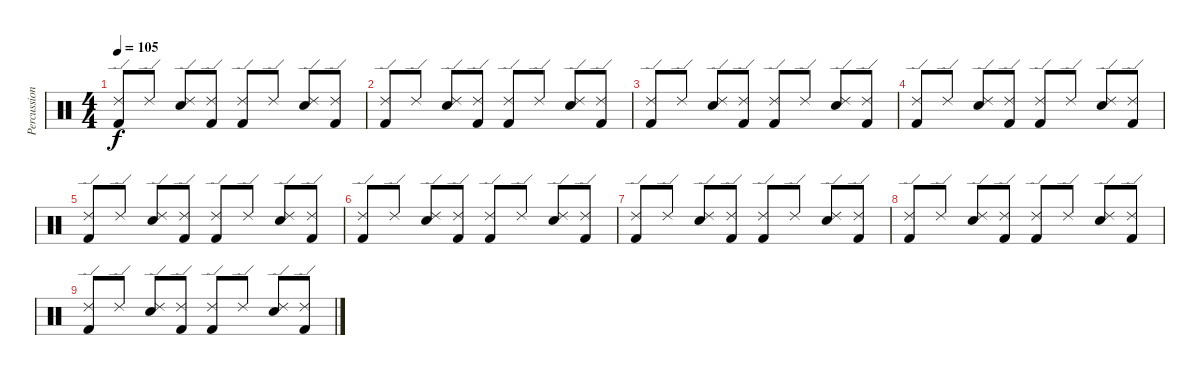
\track ("Percussion" "Percussion") {instrument percussion}
\staff {score}
\articulation defaults
\ts (4 4)
\tempo 105
\clef neutral
\ks c
("Ride (edge) 2" "Kick (hit) 2").8{dy f} "Ride (edge) 2".8 ("Ride (edge) 2" "Electric Snare (hit)").8 ("Ride (edge) 2" "Kick (hit) 2").8 ("Ride (edge) 2" "Kick (hit) 2").8 "Ride (edge) 2".8 ("Ride (edge) 2" "Electric Snare (hit)").8 ("Ride (edge) 2" "Kick (hit) 2").8 |
("Ride (edge) 2" "Kick (hit) 2").8 "Ride (edge) 2".8 ("Ride (edge) 2" "Electric Snare (hit)").8 ("Ride (edge) 2" "Kick (hit) 2").8 ("Ride (edge) 2" "Kick (hit) 2").8 "Ride (edge) 2".8 ("Ride (edge) 2" "Electric Snare (hit)").8 ("Ride (edge) 2" "Kick (hit) 2").8 |
("Ride (edge) 2" "Kick (hit) 2").8 "Ride (edge) 2".8 ("Ride (edge) 2" "Electric Snare (hit)").8 ("Ride (edge) 2" "Kick (hit) 2").8 ("Ride (edge) 2" "Kick (hit) 2").8 "Ride (edge) 2".8 ("Ride (edge) 2" "Electric Snare (hit)").8 ("Ride (edge) 2" "Kick (hit) 2").8 |
("Ride (edge) 2" "Kick (hit) 2").8 "Ride (edge) 2".8 ("Ride (edge) 2" "Electric Snare (hit)").8 ("Ride (edge) 2" "Kick (hit) 2").8 ("Ride (edge) 2" "Kick (hit) 2").8 "Ride (edge) 2".8 ("Ride (edge) 2" "Electric Snare (hit)").8 ("Ride (edge) 2" "Kick (hit) 2").8 |
("Ride (edge) 2" "Kick (hit) 2").8 "Ride (edge) 2".8 ("Ride (edge) 2" "Electric Snare (hit)").8 ("Ride (edge) 2" "Kick (hit) 2").8 ("Ride (edge) 2" "Kick (hit) 2").8 "Ride (edge) 2".8 ("Ride (edge) 2" "Electric Snare (hit)").8 ("Ride (edge) 2" "Kick (hit) 2").8 |
("Ride (edge) 2" "Kick (hit) 2").8 "Ride (edge) 2".8 ("Ride (edge) 2" "Electric Snare (hit)").8 ("Ride (edge) 2" "Kick (hit) 2").8 ("Ride (edge) 2" "Kick (hit) 2").8 "Ride (edge) 2".8 ("Ride (edge) 2" "Electric Snare (hit)").8 ("Ride (edge) 2" "Kick (hit) 2").8 |
("Ride (edge) 2" "Kick (hit) 2").8 "Ride (edge) 2".8 ("Ride (edge) 2" "Electric Snare (hit)").8 ("Ride (edge) 2" "Kick (hit) 2").8 ("Ride (edge) 2" "Kick (hit) 2").8 "Ride (edge) 2".8 ("Ride (edge) 2" "Electric Snare (hit)").8 ("Ride (edge) 2" "Kick (hit) 2").8 |
("Ride (edge) 2" "Kick (hit) 2").8 "Ride (edge) 2".8 ("Ride (edge) 2" "Electric Snare (hit)").8 ("Ride (edge) 2" "Kick (hit) 2").8 ("Ride (edge) 2" "Kick (hit) 2").8 "Ride (edge) 2".8 ("Ride (edge) 2" "Electric Snare (hit)").8 ("Ride (edge) 2" "Kick (hit) 2").8 |
("Ride (edge) 2" "Kick (hit) 2").8 "Ride (edge) 2".8 ("Ride (edge) 2" "Electric Snare (hit)").8 ("Ride (edge) 2" "Kick (hit) 2").8 ("Ride (edge) 2" "Kick (hit) 2").8 "Ride (edge) 2".8 ("Ride (edge) 2" "Electric Snare (hit)").8 ("Ride (edge) 2" "Kick (hit) 2").8
